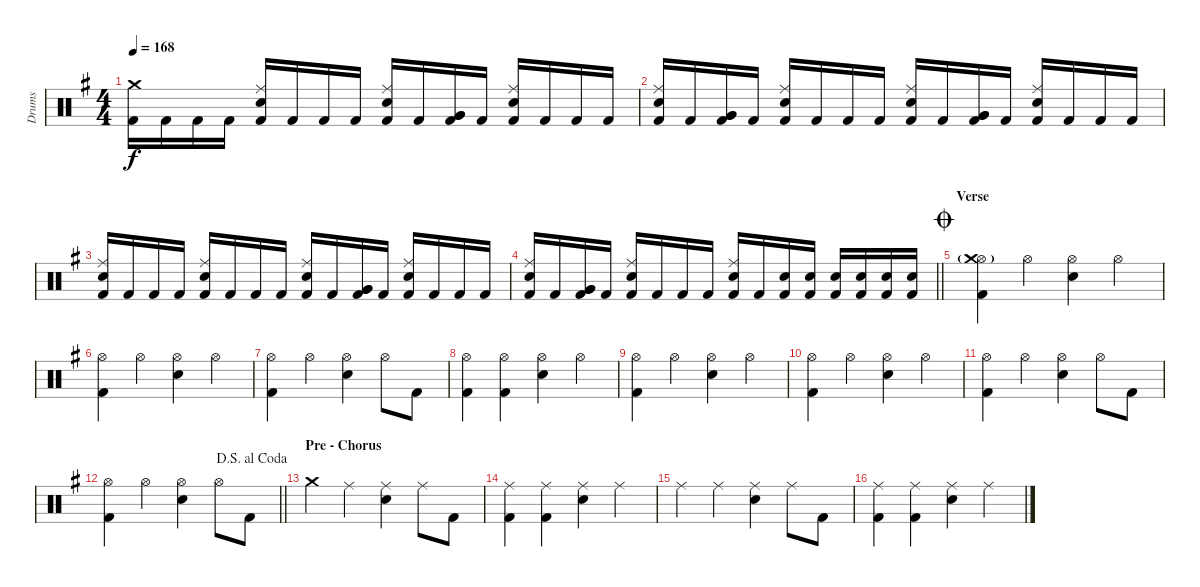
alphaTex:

\track ("Drums" "Drums") {instrument percussion}
\staff {score}
\articulation defaults
\ts (4 4)
\tempo 168
\clef neutral
\ks g
("Crash medium (hit)" "Kick (hit) 2").16{dy f} "Kick (hit) 2".16 "Kick (hit) 2".16 "Kick (hit) 2".16 ("Ride (middle)" "Electric Snare (hit)" "Kick (hit) 2").16 "Kick (hit) 2".16 "Kick (hit) 2".16 "Kick (hit) 2".16 ("Ride (middle)" "Electric Snare (hit)" "Kick (hit) 2").16 "Kick (hit) 2".16 ("Very Low Tom (hit)" "Very Low Tom (hit)" "Kick (hit) 2").16 "Kick (hit) 2".16 ("Ride (middle)" "Electric Snare (hit)" "Kick (hit) 2").16 "Kick (hit) 2".16 "Kick (hit) 2".16 "Kick (hit) 2".16 |
("Ride (middle)" "Electric Snare (hit)" "Kick (hit) 2").16 "Kick (hit) 2".16 ("Very Low Tom (hit)" "Very Low Tom (hit)" "Kick (hit) 2").16 "Kick (hit) 2".16 ("Ride (middle)" "Electric Snare (hit)" "Kick (hit) 2").16 "Kick (hit) 2".16 "Kick (hit) 2".16 "Kick (hit) 2".16 ("Ride (middle)" "Electric Snare (hit)" "Kick (hit) 2").16 "Kick (hit) 2".16 ("Very Low Tom (hit)" "Very Low Tom (hit)" "Kick (hit) 2").16 "Kick (hit) 2".16 ("Ride (middle)" "Electric Snare (hit)" "Kick (hit) 2").16 "Kick (hit) 2".16 "Kick (hit) 2".16 "Kick (hit) 2".16 |
("Ride (middle)" "Electric Snare (hit)" "Kick (hit) 2").16 "Kick (hit) 2".16 "Kick (hit) 2".16 "Kick (hit) 2".16 ("Ride (middle)" "Electric Snare (hit)" "Kick (hit) 2").16 "Kick (hit) 2".16 "Kick (hit) 2".16 "Kick (hit) 2".16 ("Ride (middle)" "Electric Snare (hit)" "Kick (hit) 2").16 "Kick (hit) 2".16 ("Very Low Tom (hit)" "Very Low Tom (hit)" "Kick (hit) 2").16 "Kick (hit) 2".16 ("Ride (middle)" "Electric Snare (hit)" "Kick (hit) 2").16 "Kick (hit) 2".16 "Kick (hit) 2".16 "Kick (hit) 2".16 |
\barLineRight lightlight
("Ride (middle)" "Electric Snare (hit)" "Kick (hit) 2").16 "Kick (hit) 2".16 ("Very Low Tom (hit)" "Very Low Tom (hit)" "Kick (hit) 2").16 "Kick (hit) 2".16 ("Ride (middle)" "Electric Snare (hit)" "Kick (hit) 2").16 "Kick (hit) 2".16 "Kick (hit) 2".16 "Kick (hit) 2".16 ("Ride (middle)" "Electric Snare (hit)" "Kick (hit) 2").16 "Kick (hit) 2".16 ("Electric Snare (hit)" "Kick (hit) 2").16 ("Electric Snare (hit)" "Kick (hit) 2").16 ("Electric Snare (hit)" "Kick (hit) 2").16 ("Electric Snare (hit)" "Kick (hit) 2").16 ("Electric Snare (hit)" "Kick (hit) 2").16 ("Electric Snare (hit)" "Kick (hit) 2").16 |
\section ("" "Verse")
\jump coda
("Hi-Hat (open)" "Crash medium (hit)"{g} "Kick (hit) 2").4 "Hi-Hat (open)".4 ("Hi-Hat (open)" "Electric Snare (hit)").4 "Hi-Hat (open)".4 |
("Hi-Hat (open)" "Kick (hit) 2").4 "Hi-Hat (open)".4 ("Hi-Hat (open)" "Electric Snare (hit)").4 "Hi-Hat (open)".4 |
("Hi-Hat (open)" "Kick (hit) 2").4 "Hi-Hat (open)".4 ("Hi-Hat (open)" "Electric Snare (hit)").4 "Hi-Hat (open)".8 "Kick (hit) 2".8 |
("Hi-Hat (open)" "Kick (hit) 2").4 ("Hi-Hat (open)" "Kick (hit) 2").4 ("Hi-Hat (open)" "Electric Snare (hit)").4 "Hi-Hat (open)".4 |
("Hi-Hat (open)" "Kick (hit) 2").4 "Hi-Hat (open)".4 ("Hi-Hat (open)" "Electric Snare (hit)").4 "Hi-Hat (open)".4 |
("Hi-Hat (open)" "Kick (hit) 2").4 "Hi-Hat (open)".4 ("Hi-Hat (open)" "Electric Snare (hit)").4 "Hi-Hat (open)".4 |
("Hi-Hat (open)" "Kick (hit) 2").4 "Hi-Hat (open)".4 ("Hi-Hat (open)" "Electric Snare (hit)").4 "Hi-Hat (open)".8 "Kick (hit) 2".8 |
\jump dalsegnoalcoda
\barLineRight lightlight
("Hi-Hat (open)" "Kick (hit) 2").4 "Hi-Hat (open)".4 ("Hi-Hat (open)" "Electric Snare (hit)").4 "Hi-Hat (open)".8 "Kick (hit) 2".8 |
\section ("" "Pre - Chorus")
"Crash medium (hit)".4 "Ride (middle)".4 ("Ride (middle)" "Electric Snare (hit)").4 "Ride (middle)".8 "Kick (hit) 2".8 |
("Ride (middle)" "Kick (hit) 2").4 ("Ride (middle)" "Kick (hit) 2").4 ("Ride (middle)" "Electric Snare (hit)").4 "Ride (middle)".4 |
"Ride (middle)".4 "Ride (middle)".4 ("Ride (middle)" "Electric Snare (hit)").4 "Ride (middle)".8 "Kick (hit) 2".8 |
("Ride (middle)" "Kick (hit) 2").4 ("Ride (middle)" "Kick (hit) 2").4 ("Ride (middle)" "Electric Snare (hit)").4 "Ride (middle)".4
